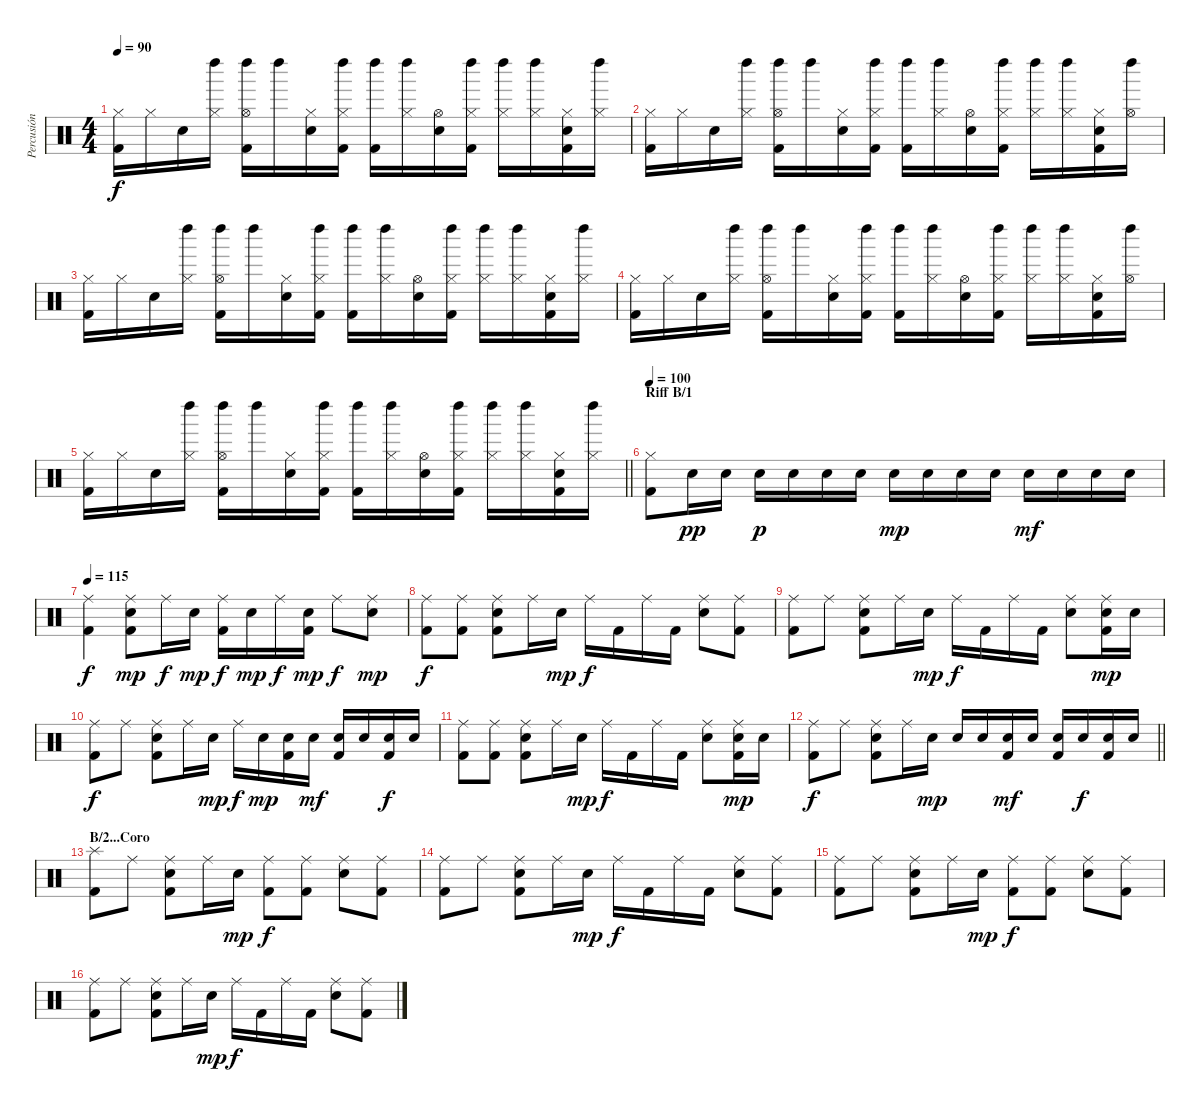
\track ("Percusión" "Percusión") {instrument percussion}
\staff {score}
\articulation defaults
\ts (4 4)
\tempo 90
\clef neutral
\ks c
("Hi-Hat (closed)" "Kick (hit) 2").16{dy f} "Hi-Hat (closed)".16 "Snare (hit) 2".16 ("Hi-Hat (closed)" "Left Maraca (hit)").16 ("Hi-Hat (open)" "Left Maraca (hit)" "Kick (hit) 2").16 "Left Maraca (hit)".16 ("Hi-Hat (closed)" "Snare (hit) 2").16 ("Hi-Hat (closed)" "Left Maraca (hit)" "Kick (hit) 2").16 ("Left Maraca (hit)" "Kick (hit) 2").16 ("Hi-Hat (closed)" "Left Maraca (hit)").16 ("Hi-Hat (open)" "Snare (hit) 2").16 ("Hi-Hat (closed)" "Left Maraca (hit)" "Kick (hit) 2").16 ("Hi-Hat (closed)" "Left Maraca (hit)").16 ("Hi-Hat (closed)" "Left Maraca (hit)").16 ("Hi-Hat (closed)" "Snare (hit) 2" "Kick (hit) 2").16 ("Hi-Hat (closed)" "Left Maraca (hit)").16 |
("Hi-Hat (closed)" "Kick (hit) 2").16 "Hi-Hat (closed)".16 "Snare (hit) 2".16 ("Hi-Hat (closed)" "Left Maraca (hit)").16 ("Hi-Hat (open)" "Left Maraca (hit)" "Kick (hit) 2").16 "Left Maraca (hit)".16 ("Hi-Hat (closed)" "Snare (hit) 2").16 ("Hi-Hat (closed)" "Left Maraca (hit)" "Kick (hit) 2").16 ("Left Maraca (hit)" "Kick (hit) 2").16 ("Hi-Hat (closed)" "Left Maraca (hit)").16 ("Hi-Hat (open)" "Snare (hit) 2").16 ("Hi-Hat (closed)" "Left Maraca (hit)" "Kick (hit) 2").16 ("Hi-Hat (closed)" "Left Maraca (hit)").16 ("Hi-Hat (closed)" "Left Maraca (hit)").16 ("Hi-Hat (closed)" "Snare (hit) 2" "Kick (hit) 2").16 ("Hi-Hat (open)" "Left Maraca (hit)").16 |
("Hi-Hat (closed)" "Kick (hit) 2").16 "Hi-Hat (closed)".16 "Snare (hit) 2".16 ("Hi-Hat (closed)" "Left Maraca (hit)").16 ("Hi-Hat (open)" "Left Maraca (hit)" "Kick (hit) 2").16 "Left Maraca (hit)".16 ("Hi-Hat (closed)" "Snare (hit) 2").16 ("Hi-Hat (closed)" "Left Maraca (hit)" "Kick (hit) 2").16 ("Left Maraca (hit)" "Kick (hit) 2").16 ("Hi-Hat (closed)" "Left Maraca (hit)").16 ("Hi-Hat (open)" "Snare (hit) 2").16 ("Hi-Hat (closed)" "Left Maraca (hit)" "Kick (hit) 2").16 ("Hi-Hat (closed)" "Left Maraca (hit)").16 ("Hi-Hat (closed)" "Left Maraca (hit)").16 ("Hi-Hat (closed)" "Snare (hit) 2" "Kick (hit) 2").16 ("Hi-Hat (closed)" "Left Maraca (hit)").16 |
("Hi-Hat (closed)" "Kick (hit) 2").16 "Hi-Hat (closed)".16 "Snare (hit) 2".16 ("Hi-Hat (closed)" "Left Maraca (hit)").16 ("Hi-Hat (open)" "Left Maraca (hit)" "Kick (hit) 2").16 "Left Maraca (hit)".16 ("Hi-Hat (closed)" "Snare (hit) 2").16 ("Hi-Hat (closed)" "Left Maraca (hit)" "Kick (hit) 2").16 ("Left Maraca (hit)" "Kick (hit) 2").16 ("Hi-Hat (closed)" "Left Maraca (hit)").16 ("Hi-Hat (open)" "Snare (hit) 2").16 ("Hi-Hat (closed)" "Left Maraca (hit)" "Kick (hit) 2").16 ("Hi-Hat (closed)" "Left Maraca (hit)").16 ("Hi-Hat (closed)" "Left Maraca (hit)").16 ("Hi-Hat (closed)" "Snare (hit) 2" "Kick (hit) 2").16 ("Hi-Hat (open)" "Left Maraca (hit)").16 |
\barLineRight lightlight
("Hi-Hat (closed)" "Kick (hit) 2").16 "Hi-Hat (closed)".16 "Snare (hit) 2".16 ("Hi-Hat (closed)" "Left Maraca (hit)").16 ("Hi-Hat (open)" "Left Maraca (hit)" "Kick (hit) 2").16 "Left Maraca (hit)".16 ("Hi-Hat (closed)" "Snare (hit) 2").16 ("Hi-Hat (closed)" "Left Maraca (hit)" "Kick (hit) 2").16 ("Left Maraca (hit)" "Kick (hit) 2").16 ("Hi-Hat (closed)" "Left Maraca (hit)").16 ("Hi-Hat (open)" "Snare (hit) 2").16 ("Hi-Hat (closed)" "Left Maraca (hit)" "Kick (hit) 2").16 ("Hi-Hat (closed)" "Left Maraca (hit)").16 ("Hi-Hat (closed)" "Left Maraca (hit)").16 ("Hi-Hat (closed)" "Snare (hit) 2" "Kick (hit) 2").16 ("Hi-Hat (closed)" "Left Maraca (hit)").16 |
\section ("" "Riff B/1")
\tempo 100
("Hi-Hat (closed)" "Kick (hit) 2").8 "Snare (hit) 2".16{dy pp} "Snare (hit) 2".16 "Snare (hit) 2".16{dy p} "Snare (hit) 2".16 "Snare (hit) 2".16 "Snare (hit) 2".16 "Snare (hit) 2".16{dy mp} "Snare (hit) 2".16 "Snare (hit) 2".16 "Snare (hit) 2".16 "Snare (hit) 2".16{dy mf} "Snare (hit) 2".16 "Snare (hit) 2".16 "Snare (hit) 2".16 |
\tempo 115
("Ride (middle)" "Kick (hit) 2").4{dy f} ("Ride (middle)" "Snare (hit) 2" "Kick (hit) 2").8{dy mp} "Ride (middle)".16{dy f} "Snare (hit) 2".16{dy mp} ("Ride (middle)" "Kick (hit) 2").16{dy f} "Snare (hit) 2".16{dy mp} "Ride (middle)".16{dy f} ("Snare (hit) 2" "Kick (hit) 2").16{dy mp} "Ride (middle)".8{dy f} ("Ride (middle)" "Snare (hit) 2").8{dy mp} |
("Ride (middle)" "Kick (hit) 2").8{dy f} ("Ride (middle)" "Kick (hit) 2").8 ("Ride (middle)" "Snare (hit) 2" "Kick (hit) 2").8 "Ride (middle)".16 "Snare (hit) 2".16{dy mp} "Ride (middle)".16{dy f} "Kick (hit) 2".16 "Ride (middle)".16 "Kick (hit) 2".16 ("Ride (middle)" "Snare (hit) 2").8 ("Ride (middle)" "Kick (hit) 2").8 |
("Ride (middle)" "Kick (hit) 2").8 "Ride (middle)".8 ("Ride (middle)" "Snare (hit) 2" "Kick (hit) 2").8 "Ride (middle)".16 "Snare (hit) 2".16{dy mp} "Ride (middle)".16{dy f} "Kick (hit) 2".16 "Ride (middle)".16 "Kick (hit) 2".16 ("Ride (middle)" "Snare (hit) 2").8 ("Ride (middle)" "Snare (hit) 2" "Kick (hit) 2").16{dy mp} "Snare (hit) 2".16 |
("Ride (middle)" "Kick (hit) 2").8{dy f} "Ride (middle)".8 ("Ride (middle)" "Snare (hit) 2" "Kick (hit) 2").8 "Ride (middle)".16 "Snare (hit) 2".16{dy mp} "Ride (middle)".16{dy f} "Snare (hit) 2".16{dy mp} ("Snare (hit) 2" "Kick (hit) 2").16 "Snare (hit) 2".16{dy mf} ("Snare (hit) 2" "Kick (hit) 2").16 "Snare (hit) 2".16 ("Snare (hit) 2" "Kick (hit) 2").16{dy f} "Snare (hit) 2".16 |
("Ride (middle)" "Kick (hit) 2").8 ("Ride (middle)" "Kick (hit) 2").8 ("Ride (middle)" "Snare (hit) 2" "Kick (hit) 2").8 "Ride (middle)".16 "Snare (hit) 2".16{dy mp} "Ride (middle)".16{dy f} "Kick (hit) 2".16 "Ride (middle)".16 "Kick (hit) 2".16 ("Ride (middle)" "Snare (hit) 2").8 ("Ride (middle)" "Snare (hit) 2" "Kick (hit) 2").16{dy mp} "Snare (hit) 2".16 |
\barLineRight lightlight
("Ride (middle)" "Kick (hit) 2").8{dy f} "Ride (middle)".8 ("Ride (middle)" "Snare (hit) 2" "Kick (hit) 2").8 "Ride (middle)".16 "Snare (hit) 2".16{dy mp} "Snare (hit) 2".16 "Snare (hit) 2".16 ("Snare (hit) 2" "Kick (hit) 2").16{dy mf} "Snare (hit) 2".16 ("Snare (hit) 2" "Kick (hit) 2").16 "Snare (hit) 2".16{dy f} ("Snare (hit) 2" "Kick (hit) 2").16 "Snare (hit) 2".16 |
\section ("" "B/2...Coro")
("Splash (hit)" "Kick (hit) 2").8 "Ride (middle)".8 ("Ride (middle)" "Snare (hit) 2" "Kick (hit) 2").8 "Ride (middle)".16 "Snare (hit) 2".16{dy mp} ("Ride (middle)" "Kick (hit) 2").8{dy f} ("Ride (middle)" "Kick (hit) 2").8 ("Ride (middle)" "Snare (hit) 2").8 ("Ride (middle)" "Kick (hit) 2").8 |
("Ride (middle)" "Kick (hit) 2").8 "Ride (middle)".8 ("Ride (middle)" "Snare (hit) 2" "Kick (hit) 2").8 "Ride (middle)".16 "Snare (hit) 2".16{dy mp} "Ride (middle)".16{dy f} "Kick (hit) 2".16 "Ride (middle)".16 "Kick (hit) 2".16 ("Ride (middle)" "Snare (hit) 2").8 ("Ride (middle)" "Kick (hit) 2").8 |
("Ride (middle)" "Kick (hit) 2").8 "Ride (middle)".8 ("Ride (middle)" "Snare (hit) 2" "Kick (hit) 2").8 "Ride (middle)".16 "Snare (hit) 2".16{dy mp} ("Ride (middle)" "Kick (hit) 2").8{dy f} ("Ride (middle)" "Kick (hit) 2").8 ("Ride (middle)" "Snare (hit) 2").8 ("Ride (middle)" "Kick (hit) 2").8 |
("Ride (middle)" "Kick (hit) 2").8 "Ride (middle)".8 ("Ride (middle)" "Snare (hit) 2" "Kick (hit) 2").8 "Ride (middle)".16 "Snare (hit) 2".16{dy mp} "Ride (middle)".16{dy f} "Kick (hit) 2".16 "Ride (middle)".16 "Kick (hit) 2".16 ("Ride (middle)" "Snare (hit) 2").8 ("Ride (middle)" "Kick (hit) 2").8
